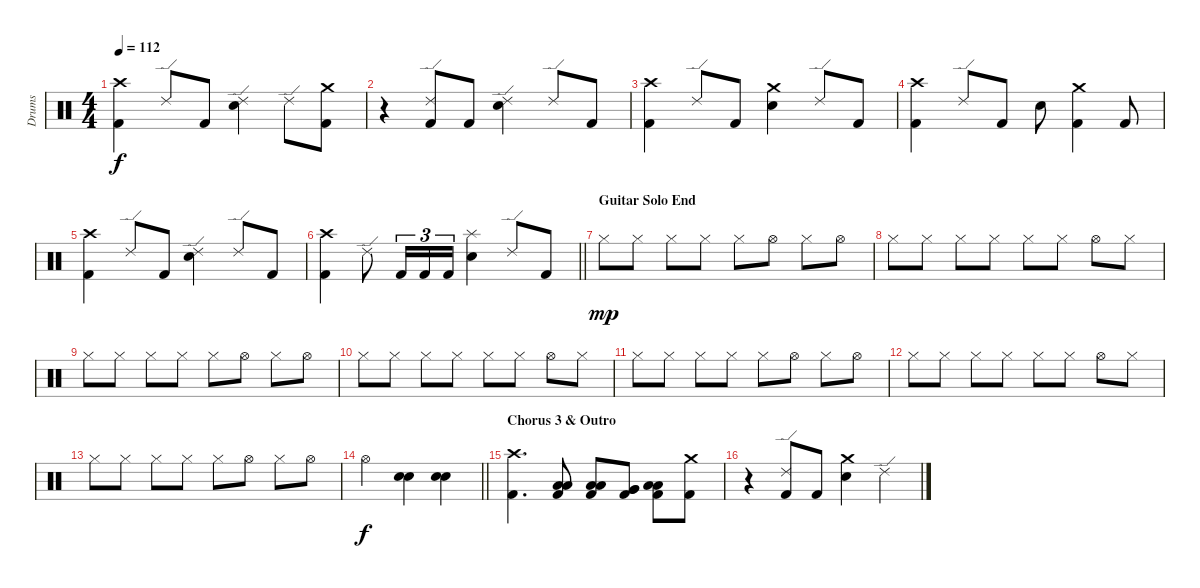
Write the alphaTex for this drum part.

\track ("Drums" "Drums") {instrument percussion}
\staff {score}
\articulation defaults
\ts (4 4)
\tempo 112
\clef neutral
\ks c
("Crash high (hit)" "Kick (hit) 2").4{dy f} "Ride (edge) 2".8 "Kick (hit) 2".8 ("Ride (edge) 2" "Electric Snare (hit)").4 "Ride (edge) 2".8 ("Crash medium (hit)" "Kick (hit) 2").8 |
r.4 ("Ride (edge) 2" "Kick (hit) 2").8 "Kick (hit) 2".8 ("Ride (edge) 2" "Electric Snare (hit)").4 "Ride (edge) 2".8 "Kick (hit) 2".8 |
("Crash high (hit)" "Kick (hit) 2").4 "Ride (edge) 2".8 "Kick (hit) 2".8 ("Crash medium (hit)" "Electric Snare (hit)").4 "Ride (edge) 2".8 "Kick (hit) 2".8 |
("Crash high (hit)" "Kick (hit) 2").4 "Ride (edge) 2".8 "Kick (hit) 2".8 "Electric Snare (hit)".8 ("Crash medium (hit)" "Kick (hit) 2").4 "Kick (hit) 2".8 |
("Crash high (hit)" "Kick (hit) 2").4 "Ride (edge) 2".8 "Kick (hit) 2".8 ("Ride (edge) 2" "Electric Snare (hit)").4 "Ride (edge) 2".8 "Kick (hit) 2".8 |
\barLineRight lightlight
("Crash high (hit)" "Kick (hit) 2").4 "Ride (edge) 2".8 "Kick (hit) 2".16{tu (3 2)} "Kick (hit) 2".16{tu (3 2)} "Kick (hit) 2".16{tu (3 2)} ("Splash (hit)" "Electric Snare (hit)").4 "Ride (edge) 2".8 "Kick (hit) 2".8 |
\section ("" "Guitar Solo End")
"Hi-Hat (closed)".8{dy mp} "Hi-Hat (closed)".8 "Hi-Hat (closed)".8 "Hi-Hat (closed)".8 "Hi-Hat (closed)".8 "Hi-Hat (open)".8 "Hi-Hat (closed)".8 "Hi-Hat (open)".8 |
"Hi-Hat (closed)".8 "Hi-Hat (closed)".8 "Hi-Hat (closed)".8 "Hi-Hat (closed)".8 "Hi-Hat (closed)".8 "Hi-Hat (closed)".8 "Hi-Hat (open)".8 "Hi-Hat (closed)".8 |
"Hi-Hat (closed)".8 "Hi-Hat (closed)".8 "Hi-Hat (closed)".8 "Hi-Hat (closed)".8 "Hi-Hat (closed)".8 "Hi-Hat (open)".8 "Hi-Hat (closed)".8 "Hi-Hat (open)".8 |
"Hi-Hat (closed)".8 "Hi-Hat (closed)".8 "Hi-Hat (closed)".8 "Hi-Hat (closed)".8 "Hi-Hat (closed)".8 "Hi-Hat (closed)".8 "Hi-Hat (open)".8 "Hi-Hat (closed)".8 |
"Hi-Hat (closed)".8 "Hi-Hat (closed)".8 "Hi-Hat (closed)".8 "Hi-Hat (closed)".8 "Hi-Hat (closed)".8 "Hi-Hat (open)".8 "Hi-Hat (closed)".8 "Hi-Hat (open)".8 |
"Hi-Hat (closed)".8 "Hi-Hat (closed)".8 "Hi-Hat (closed)".8 "Hi-Hat (closed)".8 "Hi-Hat (closed)".8 "Hi-Hat (closed)".8 "Hi-Hat (open)".8 "Hi-Hat (closed)".8 |
"Hi-Hat (closed)".8 "Hi-Hat (closed)".8 "Hi-Hat (closed)".8 "Hi-Hat (closed)".8 "Hi-Hat (closed)".8 "Hi-Hat (open)".8 "Hi-Hat (closed)".8 "Hi-Hat (open)".8 |
\barLineRight lightlight "Hi-Hat (open)".2{dy f}
("Electric Snare (hit)" "Electric Snare (hit)").4{bu 120} ("Electric Snare (hit)" "Electric Snare (hit)").4{bu 120} |
\section ("" "Chorus 3 & Outro")
("Crash high (hit)" "Kick (hit) 2").4{d} ("Low Tom (hit)" "Low Tom (hit)" "Kick (hit) 2").8{bu 30} ("Low Tom (hit)" "Low Tom (hit)" "Kick (hit) 2").8{bu 30} ("Very Low Tom (hit)" "Very Low Tom (hit)" "Kick (hit) 2").8{bu 30} ("Low Floor Tom (hit)" "Low Floor Tom (hit)" "Kick (hit) 2").8{bu 30} ("Crash medium (hit)" "Kick (hit) 2").8 |
r.4 ("Ride (edge) 2" "Kick (hit) 2").8 "Kick (hit) 2".8 ("Crash medium (hit)" "Electric Snare (hit)").4 "Ride (edge) 2".4
